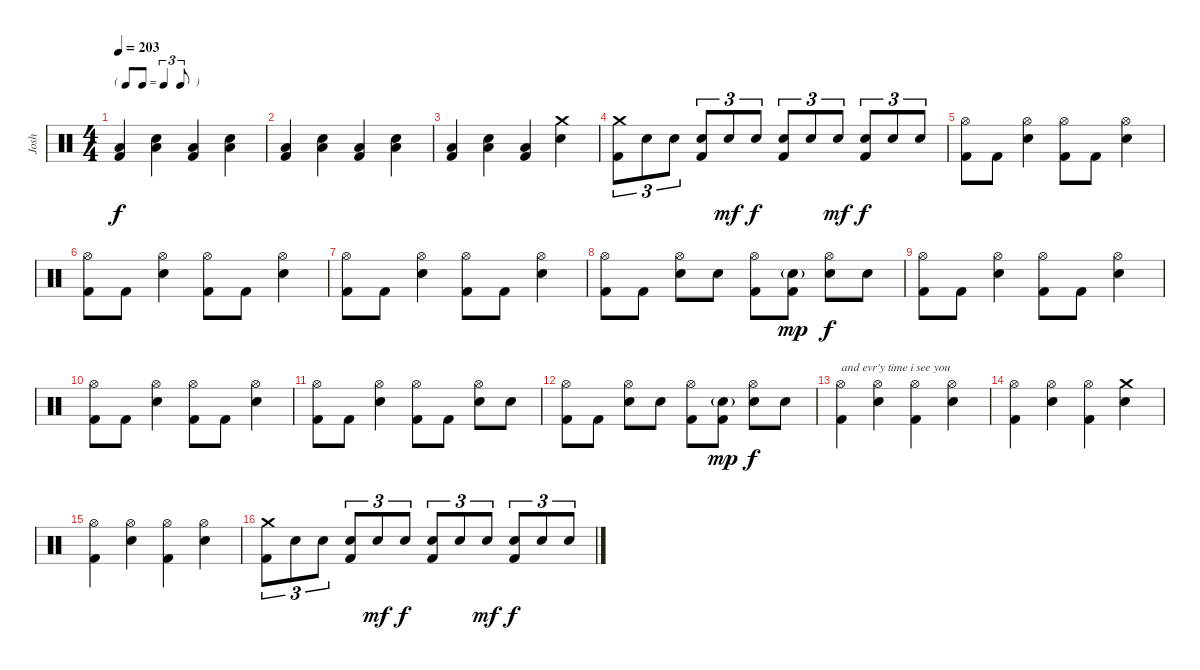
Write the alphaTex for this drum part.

\track ("Josh" "Josh") {instrument percussion}
\staff {score}
\articulation defaults
\ts (4 4)
\tf triplet8th
\tempo 203
\clef neutral
\ks c
("Low Tom (hit)" "Kick (hit) 2").4{dy f} ("Low Tom (hit)" "Electric Snare (hit)").4 ("Low Tom (hit)" "Kick (hit) 2").4 ("Low Tom (hit)" "Electric Snare (hit)").4 |
("Low Tom (hit)" "Kick (hit) 2").4 ("Low Tom (hit)" "Electric Snare (hit)").4 ("Low Tom (hit)" "Kick (hit) 2").4 ("Low Tom (hit)" "Electric Snare (hit)").4 |
("Low Tom (hit)" "Kick (hit) 2").4 ("Low Tom (hit)" "Electric Snare (hit)").4 ("Low Tom (hit)" "Kick (hit) 2").4 ("Crash medium (hit)" "Electric Snare (hit)").4 |
("Crash medium (hit)" "Kick (hit) 2").8{tu (3 2)} "Electric Snare (hit)".8{tu (3 2)} "Electric Snare (hit)".8{tu (3 2)} ("Electric Snare (hit)" "Kick (hit) 2").8{tu (3 2)} "Electric Snare (hit)".8{tu (3 2) dy mf} "Electric Snare (hit)".8{tu (3 2) dy f} ("Electric Snare (hit)" "Kick (hit) 2").8{tu (3 2)} "Electric Snare (hit)".8{tu (3 2)} "Electric Snare (hit)".8{tu (3 2) dy mf} ("Electric Snare (hit)" "Kick (hit) 2").8{tu (3 2) dy f} "Electric Snare (hit)".8{tu (3 2)} "Electric Snare (hit)".8{tu (3 2)} |
("Hi-Hat (open)" "Kick (hit) 2").8 "Kick (hit) 2".8 ("Hi-Hat (open)" "Electric Snare (hit)").4 ("Hi-Hat (open)" "Kick (hit) 2").8 "Kick (hit) 2".8 ("Hi-Hat (open)" "Electric Snare (hit)").4 |
("Hi-Hat (open)" "Kick (hit) 2").8 "Kick (hit) 2".8 ("Hi-Hat (open)" "Electric Snare (hit)").4 ("Hi-Hat (open)" "Kick (hit) 2").8 "Kick (hit) 2".8 ("Hi-Hat (open)" "Electric Snare (hit)").4 |
("Hi-Hat (open)" "Kick (hit) 2").8 "Kick (hit) 2".8 ("Hi-Hat (open)" "Electric Snare (hit)").4 ("Hi-Hat (open)" "Kick (hit) 2").8 "Kick (hit) 2".8 ("Hi-Hat (open)" "Electric Snare (hit)").4 |
("Hi-Hat (open)" "Kick (hit) 2").8 "Kick (hit) 2".8 ("Hi-Hat (open)" "Electric Snare (hit)").8 "Electric Snare (hit)".8 ("Hi-Hat (open)" "Kick (hit) 2").8 ("Electric Snare (hit)"{g} "Kick (hit) 2").8{dy mp} ("Hi-Hat (open)" "Electric Snare (hit)").8{dy f} "Electric Snare (hit)".8 |
("Hi-Hat (open)" "Kick (hit) 2").8 "Kick (hit) 2".8 ("Hi-Hat (open)" "Electric Snare (hit)").4 ("Hi-Hat (open)" "Kick (hit) 2").8 "Kick (hit) 2".8 ("Hi-Hat (open)" "Electric Snare (hit)").4 |
("Hi-Hat (open)" "Kick (hit) 2").8 "Kick (hit) 2".8 ("Hi-Hat (open)" "Electric Snare (hit)").4 ("Hi-Hat (open)" "Kick (hit) 2").8 "Kick (hit) 2".8 ("Hi-Hat (open)" "Electric Snare (hit)").4 |
("Hi-Hat (open)" "Kick (hit) 2").8 "Kick (hit) 2".8 ("Hi-Hat (open)" "Electric Snare (hit)").4 ("Hi-Hat (open)" "Kick (hit) 2").8 "Kick (hit) 2".8 ("Hi-Hat (open)" "Electric Snare (hit)").8 "Electric Snare (hit)".8 |
("Hi-Hat (open)" "Kick (hit) 2").8 "Kick (hit) 2".8 ("Hi-Hat (open)" "Electric Snare (hit)").8 "Electric Snare (hit)".8 ("Hi-Hat (open)" "Kick (hit) 2").8 ("Electric Snare (hit)"{g} "Kick (hit) 2").8{dy mp} ("Hi-Hat (open)" "Electric Snare (hit)").8{dy f} "Electric Snare (hit)".8 |
("Hi-Hat (open)" "Kick (hit) 2").4{txt "and evr'y time i see you"} ("Hi-Hat (open)" "Electric Snare (hit)").4 ("Hi-Hat (open)" "Kick (hit) 2").4 ("Hi-Hat (open)" "Electric Snare (hit)").4 |
("Hi-Hat (open)" "Kick (hit) 2").4 ("Hi-Hat (open)" "Electric Snare (hit)").4 ("Hi-Hat (open)" "Kick (hit) 2").4 ("Crash medium (hit)" "Electric Snare (hit)").4 |
("Hi-Hat (open)" "Kick (hit) 2").4 ("Hi-Hat (open)" "Electric Snare (hit)").4 ("Hi-Hat (open)" "Kick (hit) 2").4 ("Hi-Hat (open)" "Electric Snare (hit)").4 |
("Crash medium (hit)" "Kick (hit) 2").8{tu (3 2)} "Electric Snare (hit)".8{tu (3 2)} "Electric Snare (hit)".8{tu (3 2)} ("Electric Snare (hit)" "Kick (hit) 2").8{tu (3 2)} "Electric Snare (hit)".8{tu (3 2) dy mf} "Electric Snare (hit)".8{tu (3 2) dy f} ("Electric Snare (hit)" "Kick (hit) 2").8{tu (3 2)} "Electric Snare (hit)".8{tu (3 2)} "Electric Snare (hit)".8{tu (3 2) dy mf} ("Electric Snare (hit)" "Kick (hit) 2").8{tu (3 2) dy f} "Electric Snare (hit)".8{tu (3 2)} "Electric Snare (hit)".8{tu (3 2)}
